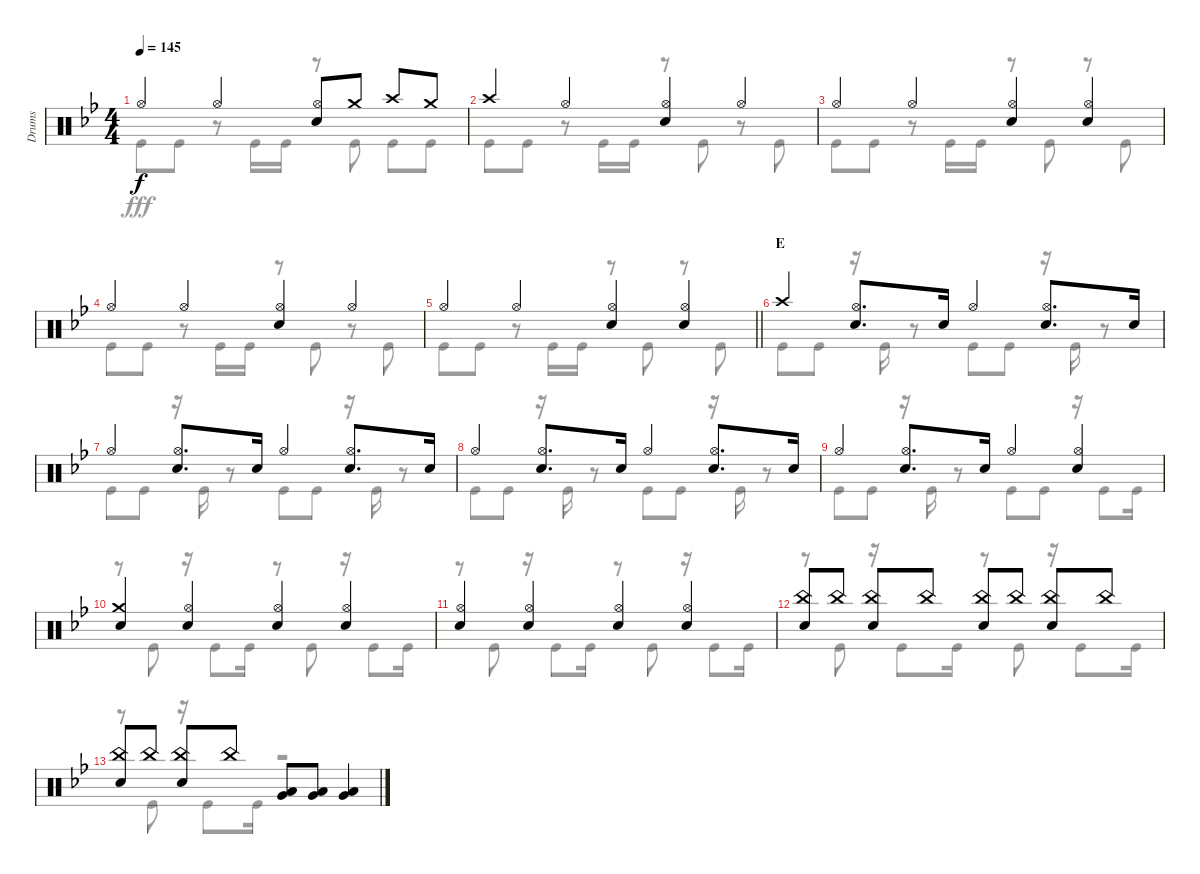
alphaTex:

\track ("Drums" "Drums") {instrument percussion}
\staff {score}
\articulation defaults
\voice
\ts (4 4)
\tempo 145
\clef neutral
\ks bb "Hi-Hat (open)".4{dy f} "Hi-Hat (open)".4
("Hi-Hat (open)" "Snare (hit) 2").8 "Crash medium (hit)".8 "Crash high (hit)".8 "Crash medium (hit)".8 |
"Crash high (hit)".4 "Hi-Hat (open)".4 ("Hi-Hat (open)" "Snare (hit) 2").4 "Hi-Hat (open)".4 |
"Hi-Hat (open)".4 "Hi-Hat (open)".4 ("Hi-Hat (open)" "Snare (hit) 2").4 ("Hi-Hat (open)" "Snare (hit) 2").4 |
"Hi-Hat (open)".4 "Hi-Hat (open)".4 ("Hi-Hat (open)" "Snare (hit) 2").4 "Hi-Hat (open)".4 |
\barLineRight lightlight "Hi-Hat (open)".4 "Hi-Hat (open)".4
("Hi-Hat (open)" "Snare (hit) 2").4 ("Hi-Hat (open)" "Snare (hit) 2").4 |
\section ("" "E")
"Crash high (hit)".4 ("Hi-Hat (open)" "Snare (hit) 2").8{d} "Snare (hit) 2".16 "Hi-Hat (open)".4 ("Hi-Hat (open)" "Snare (hit) 2").8{d} "Snare (hit) 2".16 |
"Hi-Hat (open)".4 ("Hi-Hat (open)" "Snare (hit) 2").8{d} "Snare (hit) 2".16 "Hi-Hat (open)".4 ("Hi-Hat (open)" "Snare (hit) 2").8{d} "Snare (hit) 2".16 |
"Hi-Hat (open)".4 ("Hi-Hat (open)" "Snare (hit) 2").8{d} "Snare (hit) 2".16 "Hi-Hat (open)".4 ("Hi-Hat (open)" "Snare (hit) 2").8{d} "Snare (hit) 2".16 |
"Hi-Hat (open)".4 ("Hi-Hat (open)" "Snare (hit) 2").8{d} "Snare (hit) 2".16 "Hi-Hat (open)".4 ("Hi-Hat (open)" "Snare (hit) 2").4 |
("Crash medium (hit)" "Snare (hit) 2").4 ("Hi-Hat (open)" "Snare (hit) 2").4 ("Hi-Hat (open)" "Snare (hit) 2").4 ("Hi-Hat (open)" "Snare (hit) 2").4 |
("Hi-Hat (open)" "Snare (hit) 2").4 ("Hi-Hat (open)" "Snare (hit) 2").4 ("Hi-Hat (open)" "Snare (hit) 2").4 ("Hi-Hat (open)" "Snare (hit) 2").4 |
("China (hit)" "Snare (hit) 2").8 "China (hit)".8 ("China (hit)" "Snare (hit) 2").8 "China (hit)".8 ("China (hit)" "Snare (hit) 2").8 "China (hit)".8 ("China (hit)" "Snare (hit) 2").8 "China (hit)".8 |
("China (hit)" "Snare (hit) 2").8 "China (hit)".8 ("China (hit)" "Snare (hit) 2").8 "China (hit)".8 ("Low Tom (hit)" "Very Low Tom (hit)").8 ("Low Tom (hit)" "Very Low Tom (hit)").8 ("Low Tom (hit)" "Very Low Tom (hit)").4
\voice
\clef neutral
\ottava regular
\simile none
\ks bb "Kick (hit)".8{dy fff} "Kick (hit)".8
r.8 "Kick (hit)".16 "Kick (hit)".16 r.8 "Kick (hit)".8 "Kick (hit)".8 "Kick (hit)".8 |
"Kick (hit)".8 "Kick (hit)".8 r.8 "Kick (hit)".16 "Kick (hit)".16 r.8 "Kick (hit)".8 r.8 "Kick (hit)".8 |
"Kick (hit)".8 "Kick (hit)".8 r.8 "Kick (hit)".16 "Kick (hit)".16 r.8 "Kick (hit)".8 r.8 "Kick (hit)".8 |
"Kick (hit)".8 "Kick (hit)".8 r.8 "Kick (hit)".16 "Kick (hit)".16 r.8 "Kick (hit)".8 r.8 "Kick (hit)".8 |
\barLineRight lightlight "Kick (hit)".8 "Kick (hit)".8
r.8 "Kick (hit)".16 "Kick (hit)".16 r.8 "Kick (hit)".8 r.8 "Kick (hit)".8 |
"Kick (hit)".8 "Kick (hit)".8 r.16 "Kick (hit)".16 r.8 "Kick (hit)".8 "Kick (hit)".8 r.16 "Kick (hit)".16 r.8 |
"Kick (hit)".8 "Kick (hit)".8 r.16 "Kick (hit)".16 r.8 "Kick (hit)".8 "Kick (hit)".8 r.16 "Kick (hit)".16 r.8 |
"Kick (hit)".8 "Kick (hit)".8 r.16 "Kick (hit)".16 r.8 "Kick (hit)".8 "Kick (hit)".8 r.16 "Kick (hit)".16 r.8 |
"Kick (hit)".8 "Kick (hit)".8 r.16 "Kick (hit)".16 r.8 "Kick (hit)".8 "Kick (hit)".8 r.16 "Kick (hit)".8 "Kick (hit)".16 |
r.8 "Kick (hit)".8 r.16 "Kick (hit)".8 "Kick (hit)".16 r.8 "Kick (hit)".8 r.16 "Kick (hit)".8 "Kick (hit)".16 |
r.8 "Kick (hit)".8 r.16 "Kick (hit)".8 "Kick (hit)".16 r.8 "Kick (hit)".8 r.16 "Kick (hit)".8 "Kick (hit)".16 |
r.8 "Kick (hit)".8 r.16 "Kick (hit)".8 "Kick (hit)".16 r.8 "Kick (hit)".8 r.16 "Kick (hit)".8 "Kick (hit)".16 |
r.8 "Kick (hit)".8 r.16 "Kick (hit)".8 "Kick (hit)".16 r.2
